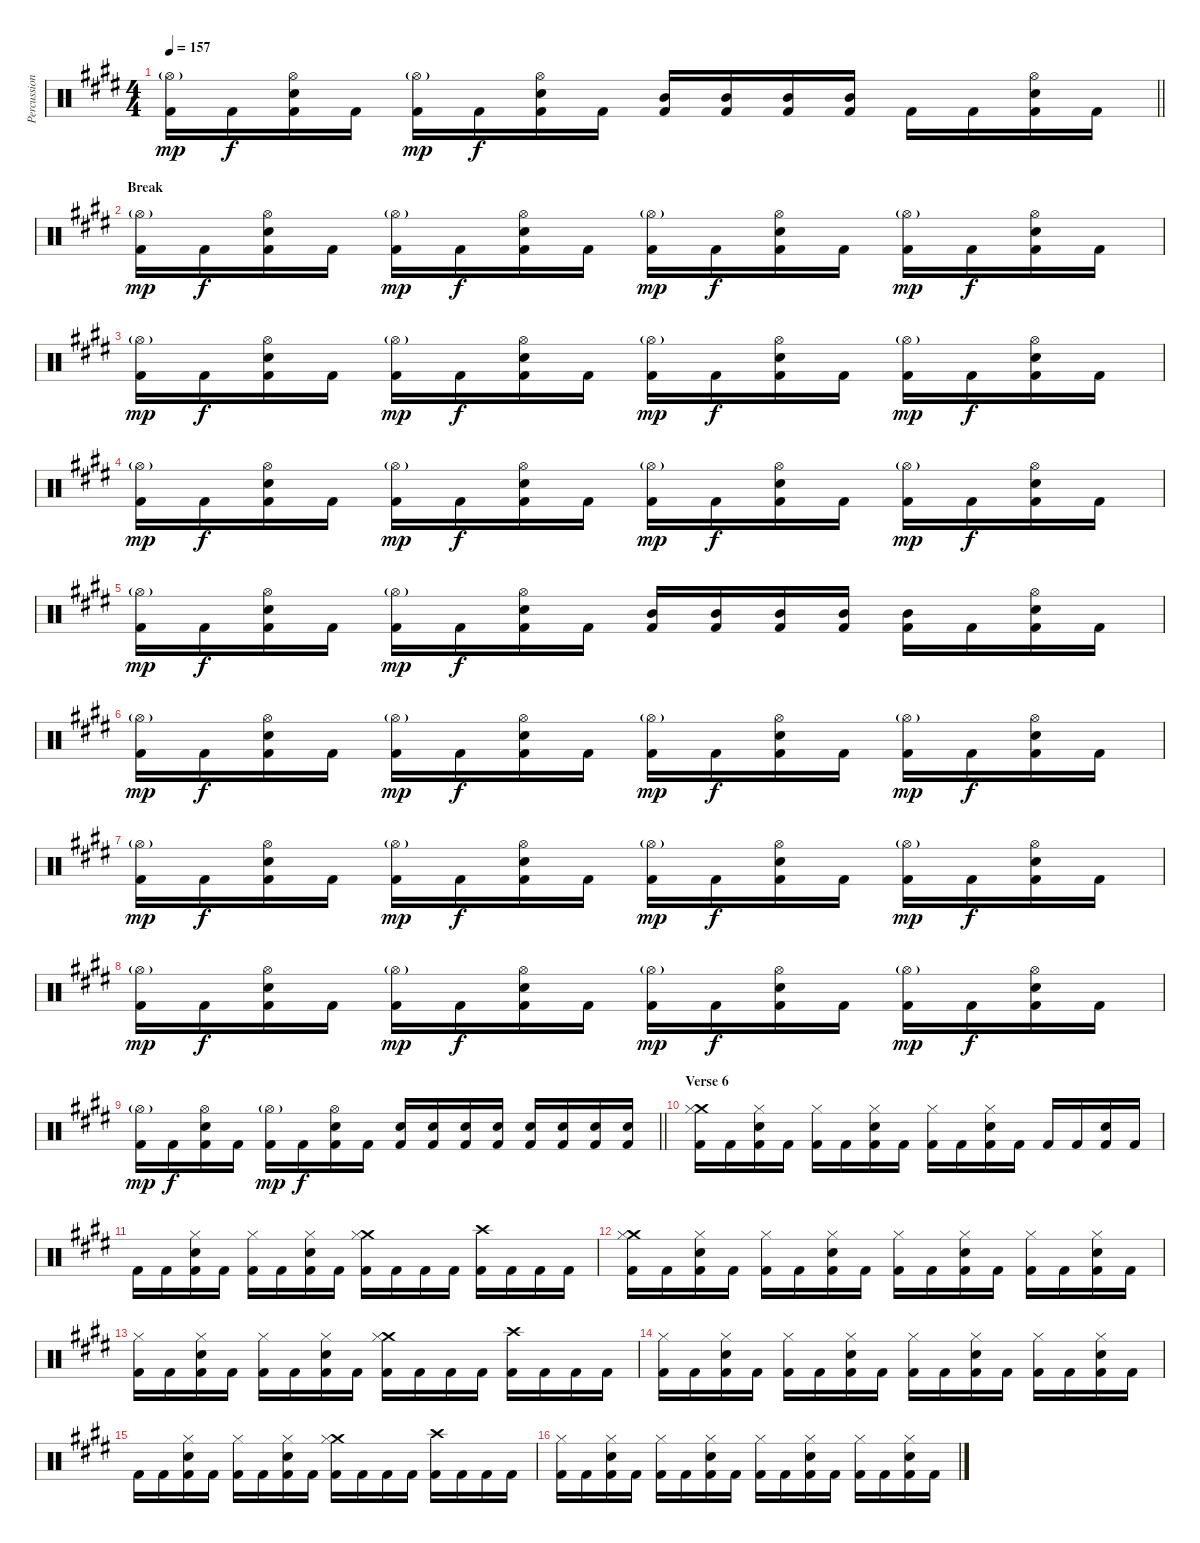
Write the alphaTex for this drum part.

\track ("Percussion (Thomen Stauch)" "Percussion") {instrument percussion}
\staff {score}
\articulation defaults
\ts (4 4)
\tempo 157
\clef neutral
\barLineRight lightlight
\ks c#minor
("Hi-Hat (open)"{g} "Kick (hit) 2").16{dy mp} "Kick (hit) 2".16{dy f} ("Hi-Hat (open)" "Snare (hit) 2" "Kick (hit) 2").16 "Kick (hit) 2".16 ("Hi-Hat (open)"{g} "Kick (hit) 2").16{dy mp} "Kick (hit) 2".16{dy f} ("Hi-Hat (open)" "Snare (hit) 2" "Kick (hit) 2").16 "Kick (hit) 2".16 ("Mid Tom (hit)" "Kick (hit) 2").16 ("Mid Tom (hit)" "Kick (hit) 2").16 ("Mid Tom (hit)" "Kick (hit) 2").16 ("Mid Tom (hit)" "Kick (hit) 2").16 "Kick (hit) 2".16 "Kick (hit) 2".16 ("Hi-Hat (open)" "Snare (hit) 2" "Kick (hit) 2").16 "Kick (hit) 2".16 |
\section ("" "Break")
("Hi-Hat (open)"{g} "Kick (hit) 2").16{dy mp} "Kick (hit) 2".16{dy f} ("Hi-Hat (open)" "Snare (hit) 2" "Kick (hit) 2").16 "Kick (hit) 2".16 ("Hi-Hat (open)"{g} "Kick (hit) 2").16{dy mp} "Kick (hit) 2".16{dy f} ("Hi-Hat (open)" "Snare (hit) 2" "Kick (hit) 2").16 "Kick (hit) 2".16 ("Hi-Hat (open)"{g} "Kick (hit) 2").16{dy mp} "Kick (hit) 2".16{dy f} ("Hi-Hat (open)" "Snare (hit) 2" "Kick (hit) 2").16 "Kick (hit) 2".16 ("Hi-Hat (open)"{g} "Kick (hit) 2").16{dy mp} "Kick (hit) 2".16{dy f} ("Hi-Hat (open)" "Snare (hit) 2" "Kick (hit) 2").16 "Kick (hit) 2".16 |
("Hi-Hat (open)"{g} "Kick (hit) 2").16{dy mp} "Kick (hit) 2".16{dy f} ("Hi-Hat (open)" "Snare (hit) 2" "Kick (hit) 2").16 "Kick (hit) 2".16 ("Hi-Hat (open)"{g} "Kick (hit) 2").16{dy mp} "Kick (hit) 2".16{dy f} ("Hi-Hat (open)" "Snare (hit) 2" "Kick (hit) 2").16 "Kick (hit) 2".16 ("Hi-Hat (open)"{g} "Kick (hit) 2").16{dy mp} "Kick (hit) 2".16{dy f} ("Hi-Hat (open)" "Snare (hit) 2" "Kick (hit) 2").16 "Kick (hit) 2".16 ("Hi-Hat (open)"{g} "Kick (hit) 2").16{dy mp} "Kick (hit) 2".16{dy f} ("Hi-Hat (open)" "Snare (hit) 2" "Kick (hit) 2").16 "Kick (hit) 2".16 |
("Hi-Hat (open)"{g} "Kick (hit) 2").16{dy mp} "Kick (hit) 2".16{dy f} ("Hi-Hat (open)" "Snare (hit) 2" "Kick (hit) 2").16 "Kick (hit) 2".16 ("Hi-Hat (open)"{g} "Kick (hit) 2").16{dy mp} "Kick (hit) 2".16{dy f} ("Hi-Hat (open)" "Snare (hit) 2" "Kick (hit) 2").16 "Kick (hit) 2".16 ("Hi-Hat (open)"{g} "Kick (hit) 2").16{dy mp} "Kick (hit) 2".16{dy f} ("Hi-Hat (open)" "Snare (hit) 2" "Kick (hit) 2").16 "Kick (hit) 2".16 ("Hi-Hat (open)"{g} "Kick (hit) 2").16{dy mp} "Kick (hit) 2".16{dy f} ("Hi-Hat (open)" "Snare (hit) 2" "Kick (hit) 2").16 "Kick (hit) 2".16 |
("Hi-Hat (open)"{g} "Kick (hit) 2").16{dy mp} "Kick (hit) 2".16{dy f} ("Hi-Hat (open)" "Snare (hit) 2" "Kick (hit) 2").16 "Kick (hit) 2".16 ("Hi-Hat (open)"{g} "Kick (hit) 2").16{dy mp} "Kick (hit) 2".16{dy f} ("Hi-Hat (open)" "Snare (hit) 2" "Kick (hit) 2").16 "Kick (hit) 2".16 ("Mid Tom (hit)" "Kick (hit) 2").16 ("Mid Tom (hit)" "Kick (hit) 2").16 ("Mid Tom (hit)" "Kick (hit) 2").16 ("Mid Tom (hit)" "Kick (hit) 2").16 ("Mid Tom (hit)" "Kick (hit) 2").16 "Kick (hit) 2".16 ("Hi-Hat (open)" "Snare (hit) 2" "Kick (hit) 2").16 "Kick (hit) 2".16 |
("Hi-Hat (open)"{g} "Kick (hit) 2").16{dy mp} "Kick (hit) 2".16{dy f} ("Hi-Hat (open)" "Snare (hit) 2" "Kick (hit) 2").16 "Kick (hit) 2".16 ("Hi-Hat (open)"{g} "Kick (hit) 2").16{dy mp} "Kick (hit) 2".16{dy f} ("Hi-Hat (open)" "Snare (hit) 2" "Kick (hit) 2").16 "Kick (hit) 2".16 ("Hi-Hat (open)"{g} "Kick (hit) 2").16{dy mp} "Kick (hit) 2".16{dy f} ("Hi-Hat (open)" "Snare (hit) 2" "Kick (hit) 2").16 "Kick (hit) 2".16 ("Hi-Hat (open)"{g} "Kick (hit) 2").16{dy mp} "Kick (hit) 2".16{dy f} ("Hi-Hat (open)" "Snare (hit) 2" "Kick (hit) 2").16 "Kick (hit) 2".16 |
("Hi-Hat (open)"{g} "Kick (hit) 2").16{dy mp} "Kick (hit) 2".16{dy f} ("Hi-Hat (open)" "Snare (hit) 2" "Kick (hit) 2").16 "Kick (hit) 2".16 ("Hi-Hat (open)"{g} "Kick (hit) 2").16{dy mp} "Kick (hit) 2".16{dy f} ("Hi-Hat (open)" "Snare (hit) 2" "Kick (hit) 2").16 "Kick (hit) 2".16 ("Hi-Hat (open)"{g} "Kick (hit) 2").16{dy mp} "Kick (hit) 2".16{dy f} ("Hi-Hat (open)" "Snare (hit) 2" "Kick (hit) 2").16 "Kick (hit) 2".16 ("Hi-Hat (open)"{g} "Kick (hit) 2").16{dy mp} "Kick (hit) 2".16{dy f} ("Hi-Hat (open)" "Snare (hit) 2" "Kick (hit) 2").16 "Kick (hit) 2".16 |
("Hi-Hat (open)"{g} "Kick (hit) 2").16{dy mp} "Kick (hit) 2".16{dy f} ("Hi-Hat (open)" "Snare (hit) 2" "Kick (hit) 2").16 "Kick (hit) 2".16 ("Hi-Hat (open)"{g} "Kick (hit) 2").16{dy mp} "Kick (hit) 2".16{dy f} ("Hi-Hat (open)" "Snare (hit) 2" "Kick (hit) 2").16 "Kick (hit) 2".16 ("Hi-Hat (open)"{g} "Kick (hit) 2").16{dy mp} "Kick (hit) 2".16{dy f} ("Hi-Hat (open)" "Snare (hit) 2" "Kick (hit) 2").16 "Kick (hit) 2".16 ("Hi-Hat (open)"{g} "Kick (hit) 2").16{dy mp} "Kick (hit) 2".16{dy f} ("Hi-Hat (open)" "Snare (hit) 2" "Kick (hit) 2").16 "Kick (hit) 2".16 |
\barLineRight lightlight
("Hi-Hat (open)"{g} "Kick (hit) 2").16{dy mp} "Kick (hit) 2".16{dy f} ("Hi-Hat (open)" "Snare (hit) 2" "Kick (hit) 2").16 "Kick (hit) 2".16 ("Hi-Hat (open)"{g} "Kick (hit) 2").16{dy mp} "Kick (hit) 2".16{dy f} ("Hi-Hat (open)" "Snare (hit) 2" "Kick (hit) 2").16 "Kick (hit) 2".16 ("Snare (hit) 2" "Kick (hit) 2").16 ("Snare (hit) 2" "Kick (hit) 2").16 ("Snare (hit) 2" "Kick (hit) 2").16 ("Snare (hit) 2" "Kick (hit) 2").16 ("Snare (hit) 2" "Kick (hit) 2").16 ("Snare (hit) 2" "Kick (hit) 2").16 ("Snare (hit) 2" "Kick (hit) 2").16 ("Snare (hit) 2" "Kick (hit) 2").16 |
\section ("" "Verse 6")
("Crash medium (hit)" "Hi-Hat (closed)" "Kick (hit) 2").16 "Kick (hit) 2".16 ("Hi-Hat (closed)" "Snare (hit) 2" "Kick (hit) 2").16 "Kick (hit) 2".16 ("Hi-Hat (closed)" "Kick (hit) 2").16 "Kick (hit) 2".16 ("Hi-Hat (closed)" "Snare (hit) 2" "Kick (hit) 2").16 "Kick (hit) 2".16 ("Hi-Hat (closed)" "Kick (hit) 2").16 "Kick (hit) 2".16 ("Hi-Hat (closed)" "Snare (hit) 2" "Kick (hit) 2").16 "Kick (hit) 2".16 "Kick (hit) 2".16 "Kick (hit) 2".16 ("Snare (hit) 2" "Kick (hit) 2").16 "Kick (hit) 2".16 |
"Kick (hit) 2".16 "Kick (hit) 2".16 ("Hi-Hat (closed)" "Snare (hit) 2" "Kick (hit) 2").16 "Kick (hit) 2".16 ("Hi-Hat (closed)" "Kick (hit) 2").16 "Kick (hit) 2".16 ("Hi-Hat (closed)" "Snare (hit) 2" "Kick (hit) 2").16 "Kick (hit) 2".16 ("Crash medium (hit)" "Hi-Hat (closed)" "Kick (hit) 2").16 "Kick (hit) 2".16 "Kick (hit) 2".16 "Kick (hit) 2".16 ("Crash high (hit)" "Kick (hit) 2").16 "Kick (hit) 2".16 "Kick (hit) 2".16 "Kick (hit) 2".16 |
("Crash medium (hit)" "Hi-Hat (closed)" "Kick (hit) 2").16 "Kick (hit) 2".16 ("Hi-Hat (closed)" "Snare (hit) 2" "Kick (hit) 2").16 "Kick (hit) 2".16 ("Hi-Hat (closed)" "Kick (hit) 2").16 "Kick (hit) 2".16 ("Hi-Hat (closed)" "Snare (hit) 2" "Kick (hit) 2").16 "Kick (hit) 2".16 ("Hi-Hat (closed)" "Kick (hit) 2").16 "Kick (hit) 2".16 ("Hi-Hat (closed)" "Snare (hit) 2" "Kick (hit) 2").16 "Kick (hit) 2".16 ("Hi-Hat (closed)" "Kick (hit) 2").16 "Kick (hit) 2".16 ("Hi-Hat (closed)" "Snare (hit) 2" "Kick (hit) 2").16 "Kick (hit) 2".16 |
("Hi-Hat (closed)" "Kick (hit) 2").16 "Kick (hit) 2".16 ("Hi-Hat (closed)" "Snare (hit) 2" "Kick (hit) 2").16 "Kick (hit) 2".16 ("Hi-Hat (closed)" "Kick (hit) 2").16 "Kick (hit) 2".16 ("Hi-Hat (closed)" "Snare (hit) 2" "Kick (hit) 2").16 "Kick (hit) 2".16 ("Crash medium (hit)" "Hi-Hat (closed)" "Kick (hit) 2").16 "Kick (hit) 2".16 "Kick (hit) 2".16 "Kick (hit) 2".16 ("Crash high (hit)" "Kick (hit) 2").16 "Kick (hit) 2".16 "Kick (hit) 2".16 "Kick (hit) 2".16 |
("Hi-Hat (closed)" "Kick (hit) 2").16 "Kick (hit) 2".16 ("Hi-Hat (closed)" "Snare (hit) 2" "Kick (hit) 2").16 "Kick (hit) 2".16 ("Hi-Hat (closed)" "Kick (hit) 2").16 "Kick (hit) 2".16 ("Hi-Hat (closed)" "Snare (hit) 2" "Kick (hit) 2").16 "Kick (hit) 2".16 ("Hi-Hat (closed)" "Kick (hit) 2").16 "Kick (hit) 2".16 ("Hi-Hat (closed)" "Snare (hit) 2" "Kick (hit) 2").16 "Kick (hit) 2".16 ("Hi-Hat (closed)" "Kick (hit) 2").16 "Kick (hit) 2".16 ("Hi-Hat (closed)" "Snare (hit) 2" "Kick (hit) 2").16 "Kick (hit) 2".16 |
"Kick (hit) 2".16 "Kick (hit) 2".16 ("Hi-Hat (closed)" "Snare (hit) 2" "Kick (hit) 2").16 "Kick (hit) 2".16 ("Hi-Hat (closed)" "Kick (hit) 2").16 "Kick (hit) 2".16 ("Hi-Hat (closed)" "Snare (hit) 2" "Kick (hit) 2").16 "Kick (hit) 2".16 ("Crash medium (hit)" "Hi-Hat (closed)" "Kick (hit) 2").16 "Kick (hit) 2".16 "Kick (hit) 2".16 "Kick (hit) 2".16 ("Crash high (hit)" "Kick (hit) 2").16 "Kick (hit) 2".16 "Kick (hit) 2".16 "Kick (hit) 2".16 |
("Hi-Hat (closed)" "Kick (hit) 2").16 "Kick (hit) 2".16 ("Hi-Hat (closed)" "Snare (hit) 2" "Kick (hit) 2").16 "Kick (hit) 2".16 ("Hi-Hat (closed)" "Kick (hit) 2").16 "Kick (hit) 2".16 ("Hi-Hat (closed)" "Snare (hit) 2" "Kick (hit) 2").16 "Kick (hit) 2".16 ("Hi-Hat (closed)" "Kick (hit) 2").16 "Kick (hit) 2".16 ("Hi-Hat (closed)" "Snare (hit) 2" "Kick (hit) 2").16 "Kick (hit) 2".16 ("Hi-Hat (closed)" "Kick (hit) 2").16 "Kick (hit) 2".16 ("Hi-Hat (closed)" "Snare (hit) 2" "Kick (hit) 2").16 "Kick (hit) 2".16
